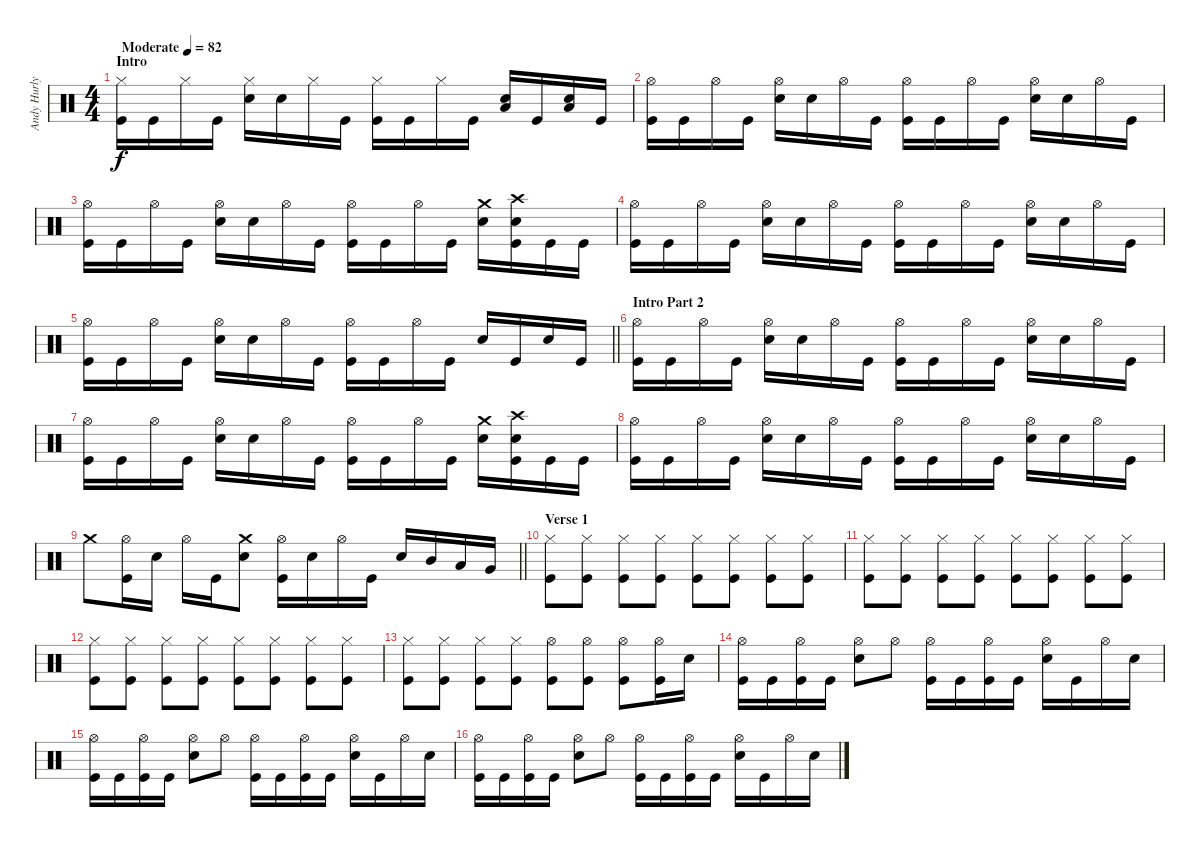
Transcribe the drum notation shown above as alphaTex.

\track ("Andy Hurly (Drums)" "Andy Hurly") {instrument percussion}
\staff {score}
\articulation defaults
\ts (4 4)
\section ("" "Intro")
\tempo (82 "Moderate")
\clef neutral
\ks c
("Hi-Hat (closed)" "Kick (hit)").16{dy f} "Kick (hit)".16 "Hi-Hat (closed)".16 "Kick (hit)".16 ("Hi-Hat (closed)" "Electric Snare (hit)").16 "Electric Snare (hit)".16 "Hi-Hat (closed)".16 "Kick (hit)".16 ("Hi-Hat (closed)" "Kick (hit)").16 "Kick (hit)".16 "Hi-Hat (closed)".16 "Kick (hit)".16 ("Low Floor Tom (hit)" "Electric Snare (hit)").16 "Kick (hit)".16 ("Low Floor Tom (hit)" "Electric Snare (hit)").16 "Kick (hit)".16 |
("Hi-Hat (open)" "Kick (hit)").16 "Kick (hit)".16 "Hi-Hat (open)".16 "Kick (hit)".16 ("Hi-Hat (open)" "Electric Snare (hit)").16 "Electric Snare (hit)".16 "Hi-Hat (open)".16 "Kick (hit)".16 ("Hi-Hat (open)" "Kick (hit)").16 "Kick (hit)".16 "Hi-Hat (open)".16 "Kick (hit)".16 ("Hi-Hat (open)" "Electric Snare (hit)").16 "Electric Snare (hit)".16 "Hi-Hat (open)".16 "Kick (hit)".16 |
("Hi-Hat (open)" "Kick (hit)").16 "Kick (hit)".16 "Hi-Hat (open)".16 "Kick (hit)".16 ("Hi-Hat (open)" "Electric Snare (hit)").16 "Electric Snare (hit)".16 "Hi-Hat (open)".16 "Kick (hit)".16 ("Hi-Hat (open)" "Kick (hit)").16 "Kick (hit)".16 "Hi-Hat (open)".16 "Kick (hit)".16 ("Crash medium (hit)" "Electric Snare (hit)").16 ("Crash high (hit)" "Electric Snare (hit)" "Kick (hit)").16 "Kick (hit)".16 "Kick (hit)".16 |
("Hi-Hat (open)" "Kick (hit)").16 "Kick (hit)".16 "Hi-Hat (open)".16 "Kick (hit)".16 ("Hi-Hat (open)" "Electric Snare (hit)").16 "Electric Snare (hit)".16 "Hi-Hat (open)".16 "Kick (hit)".16 ("Hi-Hat (open)" "Kick (hit)").16 "Kick (hit)".16 "Hi-Hat (open)".16 "Kick (hit)".16 ("Hi-Hat (open)" "Electric Snare (hit)").16 "Electric Snare (hit)".16 "Hi-Hat (open)".16 "Kick (hit)".16 |
\barLineRight lightlight
("Hi-Hat (open)" "Kick (hit)").16 "Kick (hit)".16 "Hi-Hat (open)".16 "Kick (hit)".16 ("Hi-Hat (open)" "Electric Snare (hit)").16 "Electric Snare (hit)".16 "Hi-Hat (open)".16 "Kick (hit)".16 ("Hi-Hat (open)" "Kick (hit)").16 "Kick (hit)".16 "Hi-Hat (open)".16 "Kick (hit)".16 "Electric Snare (hit)".16 "Kick (hit)".16 "Electric Snare (hit)".16 "Kick (hit)".16 |
\section ("" "Intro Part 2")
("Hi-Hat (open)" "Kick (hit)").16 "Kick (hit)".16 "Hi-Hat (open)".16 "Kick (hit)".16 ("Hi-Hat (open)" "Electric Snare (hit)").16 "Electric Snare (hit)".16 "Hi-Hat (open)".16 "Kick (hit)".16 ("Hi-Hat (open)" "Kick (hit)").16 "Kick (hit)".16 "Hi-Hat (open)".16 "Kick (hit)".16 ("Hi-Hat (open)" "Electric Snare (hit)").16 "Electric Snare (hit)".16 "Hi-Hat (open)".16 "Kick (hit)".16 |
("Hi-Hat (open)" "Kick (hit)").16 "Kick (hit)".16 "Hi-Hat (open)".16 "Kick (hit)".16 ("Hi-Hat (open)" "Electric Snare (hit)").16 "Electric Snare (hit)".16 "Hi-Hat (open)".16 "Kick (hit)".16 ("Hi-Hat (open)" "Kick (hit)").16 "Kick (hit)".16 "Hi-Hat (open)".16 "Kick (hit)".16 ("Crash medium (hit)" "Electric Snare (hit)").16 ("Crash high (hit)" "Electric Snare (hit)" "Kick (hit)").16 "Kick (hit)".16 "Kick (hit)".16 |
("Hi-Hat (open)" "Kick (hit)").16 "Kick (hit)".16 "Hi-Hat (open)".16 "Kick (hit)".16 ("Hi-Hat (open)" "Electric Snare (hit)").16 "Electric Snare (hit)".16 "Hi-Hat (open)".16 "Kick (hit)".16 ("Hi-Hat (open)" "Kick (hit)").16 "Kick (hit)".16 "Hi-Hat (open)".16 "Kick (hit)".16 ("Hi-Hat (open)" "Electric Snare (hit)").16 "Electric Snare (hit)".16 "Hi-Hat (open)".16 "Kick (hit)".16 |
\barLineRight lightlight "Crash medium (hit)".8
("Hi-Hat (open)" "Kick (hit)").16 "Electric Snare (hit)".16 "Hi-Hat (open)".16 "Kick (hit)".16 ("Crash medium (hit)" "Electric Snare (hit)").8 ("Hi-Hat (open)" "Kick (hit)").16 "Electric Snare (hit)".16 "Hi-Hat (open)".16 "Kick (hit)".16 "Electric Snare (hit)".16 "Mid Tom (hit)".16 "Low Tom (hit)".16 "Very Low Tom (hit)".16 |
\section ("" "Verse 1")
("Hi-Hat (closed)" "Kick (hit)").8 ("Hi-Hat (closed)" "Kick (hit)").8 ("Hi-Hat (closed)" "Kick (hit)").8 ("Hi-Hat (closed)" "Kick (hit)").8 ("Hi-Hat (closed)" "Kick (hit)").8 ("Hi-Hat (closed)" "Kick (hit)").8 ("Hi-Hat (closed)" "Kick (hit)").8 ("Hi-Hat (closed)" "Kick (hit)").8 |
("Hi-Hat (closed)" "Kick (hit)").8 ("Hi-Hat (closed)" "Kick (hit)").8 ("Hi-Hat (closed)" "Kick (hit)").8 ("Hi-Hat (closed)" "Kick (hit)").8 ("Hi-Hat (closed)" "Kick (hit)").8 ("Hi-Hat (closed)" "Kick (hit)").8 ("Hi-Hat (closed)" "Kick (hit)").8 ("Hi-Hat (closed)" "Kick (hit)").8 |
("Hi-Hat (closed)" "Kick (hit)").8 ("Hi-Hat (closed)" "Kick (hit)").8 ("Hi-Hat (closed)" "Kick (hit)").8 ("Hi-Hat (closed)" "Kick (hit)").8 ("Hi-Hat (closed)" "Kick (hit)").8 ("Hi-Hat (closed)" "Kick (hit)").8 ("Hi-Hat (closed)" "Kick (hit)").8 ("Hi-Hat (closed)" "Kick (hit)").8 |
("Hi-Hat (closed)" "Kick (hit)").8 ("Hi-Hat (closed)" "Kick (hit)").8 ("Hi-Hat (closed)" "Kick (hit)").8 ("Hi-Hat (closed)" "Kick (hit)").8 ("Hi-Hat (open)" "Kick (hit)").8 ("Hi-Hat (open)" "Kick (hit)").8 ("Hi-Hat (open)" "Kick (hit)").8 ("Hi-Hat (open)" "Kick (hit)").16 "Electric Snare (hit)".16 |
("Hi-Hat (open)" "Kick (hit)").16 "Kick (hit)".16 ("Hi-Hat (open)" "Kick (hit)").16 "Kick (hit)".16 ("Hi-Hat (open)" "Electric Snare (hit)").8 "Hi-Hat (open)".8 ("Hi-Hat (open)" "Kick (hit)").16 "Kick (hit)".16 ("Hi-Hat (open)" "Kick (hit)").16 "Kick (hit)".16 ("Hi-Hat (open)" "Electric Snare (hit)").16 "Kick (hit)".16 "Hi-Hat (open)".16 "Electric Snare (hit)".16 |
("Hi-Hat (open)" "Kick (hit)").16 "Kick (hit)".16 ("Hi-Hat (open)" "Kick (hit)").16 "Kick (hit)".16 ("Hi-Hat (open)" "Electric Snare (hit)").8 "Hi-Hat (open)".8 ("Hi-Hat (open)" "Kick (hit)").16 "Kick (hit)".16 ("Hi-Hat (open)" "Kick (hit)").16 "Kick (hit)".16 ("Hi-Hat (open)" "Electric Snare (hit)").16 "Kick (hit)".16 "Hi-Hat (open)".16 "Electric Snare (hit)".16 |
("Hi-Hat (open)" "Kick (hit)").16 "Kick (hit)".16 ("Hi-Hat (open)" "Kick (hit)").16 "Kick (hit)".16 ("Hi-Hat (open)" "Electric Snare (hit)").8 "Hi-Hat (open)".8 ("Hi-Hat (open)" "Kick (hit)").16 "Kick (hit)".16 ("Hi-Hat (open)" "Kick (hit)").16 "Kick (hit)".16 ("Hi-Hat (open)" "Electric Snare (hit)").16 "Kick (hit)".16 "Hi-Hat (open)".16 "Electric Snare (hit)".16
